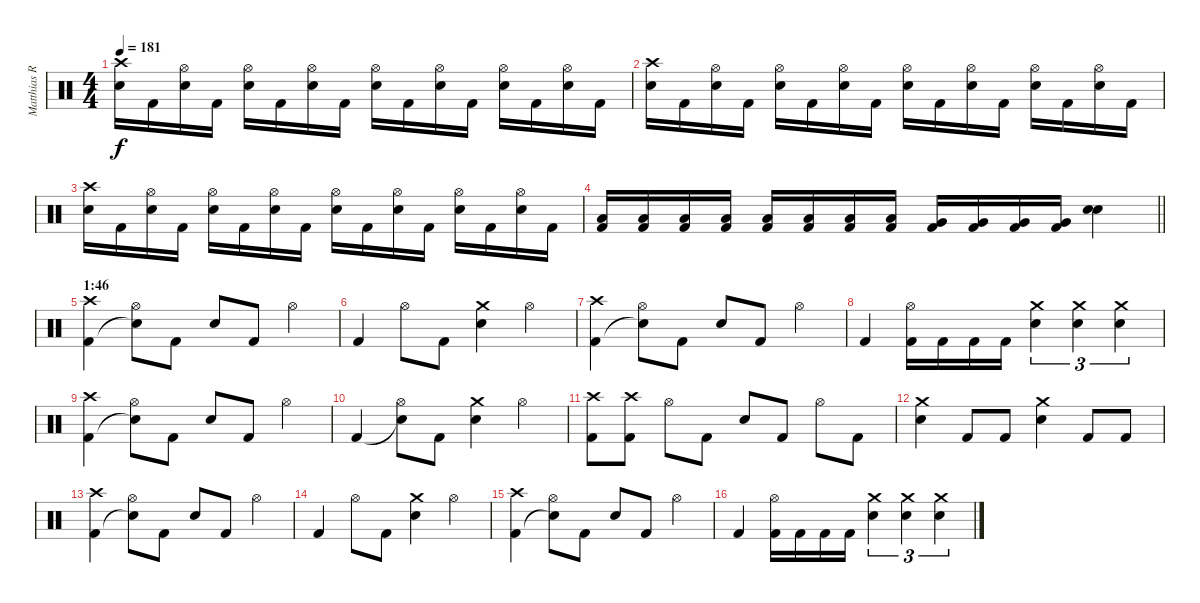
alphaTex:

\track ("Matthias R." "Matthias R") {instrument percussion}
\staff {score}
\articulation defaults
\ts (4 4)
\tempo 181
\clef neutral
\ks c
("Snare (hit) 2" "Crash high (hit)").16{dy f} "Kick (hit) 2".16 ("Snare (hit) 2" "Hi-Hat (open)").16 "Kick (hit) 2".16 ("Snare (hit) 2" "Hi-Hat (open)").16 "Kick (hit) 2".16 ("Snare (hit) 2" "Hi-Hat (open)").16 "Kick (hit) 2".16 ("Snare (hit) 2" "Hi-Hat (open)").16 "Kick (hit) 2".16 ("Snare (hit) 2" "Hi-Hat (open)").16 "Kick (hit) 2".16 ("Snare (hit) 2" "Hi-Hat (open)").16 "Kick (hit) 2".16 ("Snare (hit) 2" "Hi-Hat (open)").16 "Kick (hit) 2".16 |
("Snare (hit) 2" "Crash high (hit)").16 "Kick (hit) 2".16 ("Snare (hit) 2" "Hi-Hat (open)").16 "Kick (hit) 2".16 ("Snare (hit) 2" "Hi-Hat (open)").16 "Kick (hit) 2".16 ("Snare (hit) 2" "Hi-Hat (open)").16 "Kick (hit) 2".16 ("Snare (hit) 2" "Hi-Hat (open)").16 "Kick (hit) 2".16 ("Snare (hit) 2" "Hi-Hat (open)").16 "Kick (hit) 2".16 ("Snare (hit) 2" "Hi-Hat (open)").16 "Kick (hit) 2".16 ("Snare (hit) 2" "Hi-Hat (open)").16 "Kick (hit) 2".16 |
("Snare (hit) 2" "Crash high (hit)").16 "Kick (hit) 2".16 ("Snare (hit) 2" "Hi-Hat (open)").16 "Kick (hit) 2".16 ("Snare (hit) 2" "Hi-Hat (open)").16 "Kick (hit) 2".16 ("Snare (hit) 2" "Hi-Hat (open)").16 "Kick (hit) 2".16 ("Snare (hit) 2" "Hi-Hat (open)").16 "Kick (hit) 2".16 ("Snare (hit) 2" "Hi-Hat (open)").16 "Kick (hit) 2".16 ("Snare (hit) 2" "Hi-Hat (open)").16 "Kick (hit) 2".16 ("Snare (hit) 2" "Hi-Hat (open)").16 "Kick (hit) 2".16 |
\barLineRight lightlight
("Kick (hit) 2" "Low Tom (hit)").16 ("Kick (hit) 2" "Low Tom (hit)").16 ("Kick (hit) 2" "Low Tom (hit)").16 ("Kick (hit) 2" "Low Tom (hit)").16 ("Kick (hit) 2" "Low Tom (hit)").16 ("Kick (hit) 2" "Low Tom (hit)").16 ("Kick (hit) 2" "Low Tom (hit)").16 ("Kick (hit) 2" "Low Tom (hit)").16 ("Kick (hit) 2" "Very Low Tom (hit)").16 ("Kick (hit) 2" "Very Low Tom (hit)").16 ("Kick (hit) 2" "Very Low Tom (hit)").16 ("Kick (hit) 2" "Very Low Tom (hit)").16 ("Snare (hit) 2" "Electric Snare (hit)").4{bd 60} |
\section ("" "1:46")
("Kick (hit) 2" "Crash high (hit)").4 ("Snare (hit)"{t} "Hi-Hat (open)").8 "Kick (hit) 2".8 "Snare (hit) 2".8 "Kick (hit) 2".8 "Hi-Hat (open)".4 |
"Kick (hit) 2".4 "Hi-Hat (open)".8 "Kick (hit) 2".8 ("Snare (hit) 2" "Crash medium (hit)").4 "Hi-Hat (open)".4 |
("Kick (hit) 2" "Crash high (hit)").4 ("Snare (hit)"{t} "Hi-Hat (open)").8 "Kick (hit) 2".8 "Snare (hit) 2".8 "Kick (hit) 2".8 "Hi-Hat (open)".4 |
"Kick (hit) 2".4 ("Kick (hit) 2" "Hi-Hat (open)").16 "Kick (hit) 2".16 "Kick (hit) 2".16 "Kick (hit) 2".16 ("Snare (hit) 2" "Crash medium (hit)").4{tu (3 2)} ("Snare (hit) 2" "Crash medium (hit)").4{tu (3 2)} ("Snare (hit) 2" "Crash medium (hit)").4{tu (3 2)} |
("Kick (hit) 2" "Crash high (hit)").4 ("Snare (hit)"{t} "Hi-Hat (open)").8 "Kick (hit) 2".8 "Snare (hit) 2".8 "Kick (hit) 2".8 "Hi-Hat (open)".4 |
"Kick (hit) 2".4 ("Snare (hit)"{t} "Hi-Hat (open)").8 "Kick (hit) 2".8 ("Snare (hit) 2" "Crash medium (hit)").4 "Hi-Hat (open)".4 |
("Kick (hit) 2" "Crash high (hit)").8 ("Kick (hit) 2" "Crash high (hit)").8 "Hi-Hat (open)".8 "Kick (hit) 2".8 "Snare (hit) 2".8 "Kick (hit) 2".8 "Hi-Hat (open)".8 "Kick (hit) 2".8 |
("Snare (hit) 2" "Crash medium (hit)").4 "Kick (hit) 2".8 "Kick (hit) 2".8 ("Snare (hit) 2" "Crash medium (hit)").4 "Kick (hit) 2".8 "Kick (hit) 2".8 |
("Kick (hit) 2" "Crash high (hit)").4 ("Snare (hit)"{t} "Hi-Hat (open)").8 "Kick (hit) 2".8 "Snare (hit) 2".8 "Kick (hit) 2".8 "Hi-Hat (open)".4 |
"Kick (hit) 2".4 "Hi-Hat (open)".8 "Kick (hit) 2".8 ("Snare (hit) 2" "Crash medium (hit)").4 "Hi-Hat (open)".4 |
("Kick (hit) 2" "Crash high (hit)").4 ("Snare (hit)"{t} "Hi-Hat (open)").8 "Kick (hit) 2".8 "Snare (hit) 2".8 "Kick (hit) 2".8 "Hi-Hat (open)".4 |
"Kick (hit) 2".4 ("Kick (hit) 2" "Hi-Hat (open)").16 "Kick (hit) 2".16 "Kick (hit) 2".16 "Kick (hit) 2".16 ("Snare (hit) 2" "Crash medium (hit)").4{tu (3 2)} ("Snare (hit) 2" "Crash medium (hit)").4{tu (3 2)} ("Snare (hit) 2" "Crash medium (hit)").4{tu (3 2)}
